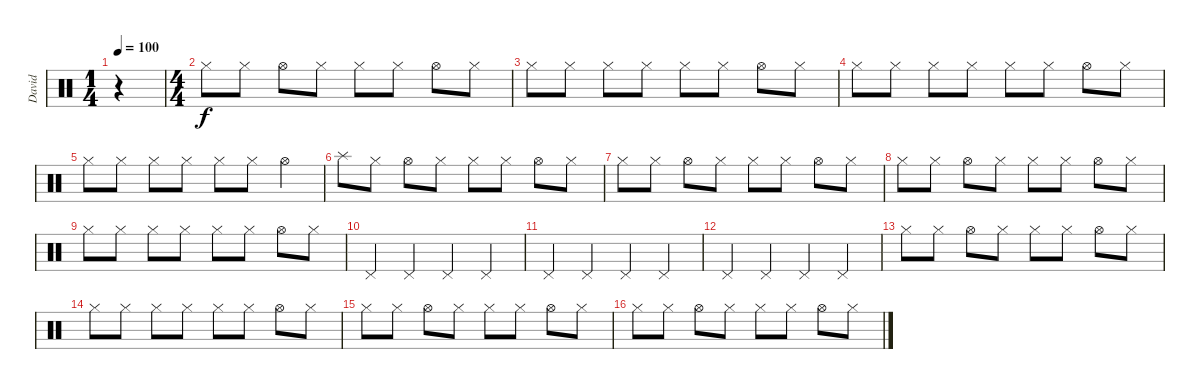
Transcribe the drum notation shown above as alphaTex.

\track ("David" "David") {instrument percussion}
\staff {score}
\articulation defaults
\ts (1 4)
\tempo 100
\clef neutral
\ks c
r.4{dy f} |
\ts (4 4)
"Hi-Hat (closed)".8 "Hi-Hat (closed)".8 "Hi-Hat (open)".8 "Hi-Hat (closed)".8 "Hi-Hat (closed)".8 "Hi-Hat (closed)".8 "Hi-Hat (open)".8 "Hi-Hat (closed)".8 |
"Hi-Hat (closed)".8 "Hi-Hat (closed)".8 "Hi-Hat (closed)".8 "Hi-Hat (closed)".8 "Hi-Hat (closed)".8 "Hi-Hat (closed)".8 "Hi-Hat (open)".8 "Hi-Hat (closed)".8 |
"Hi-Hat (closed)".8 "Hi-Hat (closed)".8 "Hi-Hat (closed)".8 "Hi-Hat (closed)".8 "Hi-Hat (closed)".8 "Hi-Hat (closed)".8 "Hi-Hat (open)".8 "Hi-Hat (closed)".8 |
"Hi-Hat (closed)".8 "Hi-Hat (closed)".8 "Hi-Hat (closed)".8 "Hi-Hat (closed)".8 "Hi-Hat (closed)".8 "Hi-Hat (closed)".8 "Hi-Hat (open)".4 |
"Splash (hit)".8 "Hi-Hat (closed)".8 "Hi-Hat (open)".8 "Hi-Hat (closed)".8 "Hi-Hat (closed)".8 "Hi-Hat (closed)".8 "Hi-Hat (open)".8 "Hi-Hat (closed)".8 |
"Hi-Hat (closed)".8 "Hi-Hat (closed)".8 "Hi-Hat (open)".8 "Hi-Hat (closed)".8 "Hi-Hat (closed)".8 "Hi-Hat (closed)".8 "Hi-Hat (open)".8 "Hi-Hat (closed)".8 |
"Hi-Hat (closed)".8 "Hi-Hat (closed)".8 "Hi-Hat (open)".8 "Hi-Hat (closed)".8 "Hi-Hat (closed)".8 "Hi-Hat (closed)".8 "Hi-Hat (open)".8 "Hi-Hat (closed)".8 |
"Hi-Hat (closed)".8 "Hi-Hat (closed)".8 "Hi-Hat (closed)".8 "Hi-Hat (closed)".8 "Hi-Hat (closed)".8 "Hi-Hat (closed)".8 "Hi-Hat (open)".8 "Hi-Hat (closed)".8 |
"Pedal Hi-Hat (hit)".4 "Pedal Hi-Hat (hit)".4 "Pedal Hi-Hat (hit)".4 "Pedal Hi-Hat (hit)".4 |
"Pedal Hi-Hat (hit)".4 "Pedal Hi-Hat (hit)".4 "Pedal Hi-Hat (hit)".4 "Pedal Hi-Hat (hit)".4 |
"Pedal Hi-Hat (hit)".4 "Pedal Hi-Hat (hit)".4 "Pedal Hi-Hat (hit)".4 "Pedal Hi-Hat (hit)".4 |
"Hi-Hat (closed)".8 "Hi-Hat (closed)".8 "Hi-Hat (open)".8 "Hi-Hat (closed)".8 "Hi-Hat (closed)".8 "Hi-Hat (closed)".8 "Hi-Hat (open)".8 "Hi-Hat (closed)".8 |
"Hi-Hat (closed)".8 "Hi-Hat (closed)".8 "Hi-Hat (closed)".8 "Hi-Hat (closed)".8 "Hi-Hat (closed)".8 "Hi-Hat (closed)".8 "Hi-Hat (open)".8 "Hi-Hat (closed)".8 |
"Hi-Hat (closed)".8 "Hi-Hat (closed)".8 "Hi-Hat (open)".8 "Hi-Hat (closed)".8 "Hi-Hat (closed)".8 "Hi-Hat (closed)".8 "Hi-Hat (open)".8 "Hi-Hat (closed)".8 |
"Hi-Hat (closed)".8 "Hi-Hat (closed)".8 "Hi-Hat (open)".8 "Hi-Hat (closed)".8 "Hi-Hat (closed)".8 "Hi-Hat (closed)".8 "Hi-Hat (open)".8 "Hi-Hat (closed)".8
